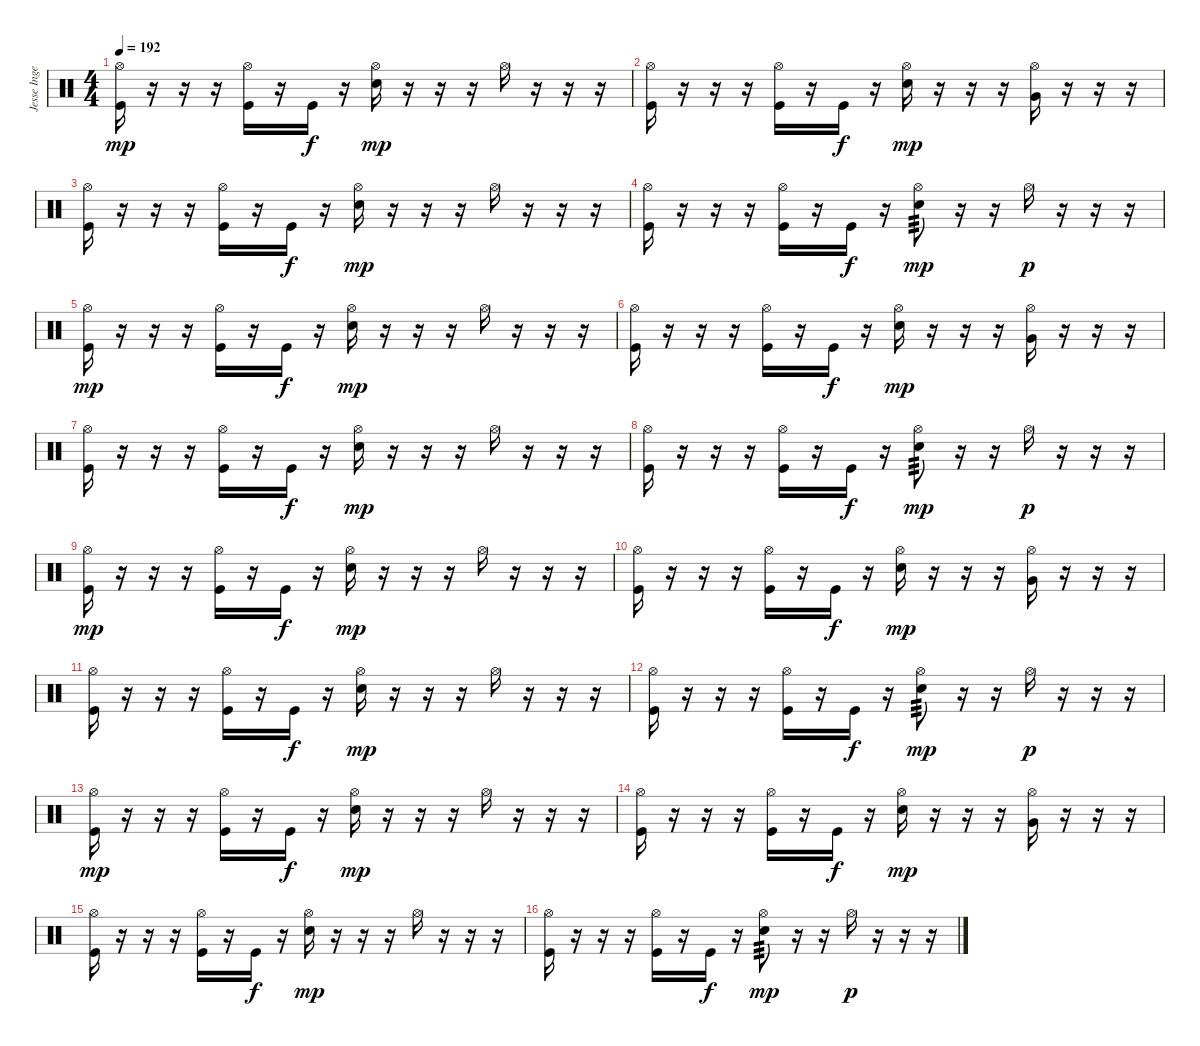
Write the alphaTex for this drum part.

\track ("Jesse Ingelevics" "Jesse Inge") {instrument percussion}
\staff {score}
\articulation defaults
\ts (4 4)
\tempo 192
\clef neutral
\ks c
("Hi-Hat (open)" "Kick (hit)").16{dy mp} r.16 r.16 r.16 ("Hi-Hat (open)" "Kick (hit)").16 r.16 "Kick (hit)".16{dy f} r.16 ("Hi-Hat (open)" "Electric Snare (hit)").16{dy mp} r.16 r.16 r.16 "Hi-Hat (open)".16 r.16 r.16 r.16 |
("Hi-Hat (open)" "Kick (hit)").16 r.16 r.16 r.16 ("Hi-Hat (open)" "Kick (hit)").16 r.16 "Kick (hit)".16{dy f} r.16 ("Hi-Hat (open)" "Electric Snare (hit)").16{dy mp} r.16 r.16 r.16 ("Hi-Hat (open)" "Very Low Tom (hit)").16 r.16 r.16 r.16 |
("Hi-Hat (open)" "Kick (hit)").16 r.16 r.16 r.16 ("Hi-Hat (open)" "Kick (hit)").16 r.16 "Kick (hit)".16{dy f} r.16 ("Hi-Hat (open)" "Electric Snare (hit)").16{dy mp} r.16 r.16 r.16 "Hi-Hat (open)".16 r.16 r.16 r.16 |
("Hi-Hat (open)" "Kick (hit)").16 r.16 r.16 r.16 ("Hi-Hat (open)" "Kick (hit)").16 r.16 "Kick (hit)".16{dy f} r.16 ("Hi-Hat (open)" "Electric Snare (hit)").8{tp 3 dy mp} r.16 r.16 "Hi-Hat (open)".16{dy p} r.16 r.16 r.16 |
("Hi-Hat (open)" "Kick (hit)").16{dy mp} r.16 r.16 r.16 ("Hi-Hat (open)" "Kick (hit)").16 r.16 "Kick (hit)".16{dy f} r.16 ("Hi-Hat (open)" "Electric Snare (hit)").16{dy mp} r.16 r.16 r.16 "Hi-Hat (open)".16 r.16 r.16 r.16 |
("Hi-Hat (open)" "Kick (hit)").16 r.16 r.16 r.16 ("Hi-Hat (open)" "Kick (hit)").16 r.16 "Kick (hit)".16{dy f} r.16 ("Hi-Hat (open)" "Electric Snare (hit)").16{dy mp} r.16 r.16 r.16 ("Hi-Hat (open)" "Very Low Tom (hit)").16 r.16 r.16 r.16 |
("Hi-Hat (open)" "Kick (hit)").16 r.16 r.16 r.16 ("Hi-Hat (open)" "Kick (hit)").16 r.16 "Kick (hit)".16{dy f} r.16 ("Hi-Hat (open)" "Electric Snare (hit)").16{dy mp} r.16 r.16 r.16 "Hi-Hat (open)".16 r.16 r.16 r.16 |
("Hi-Hat (open)" "Kick (hit)").16 r.16 r.16 r.16 ("Hi-Hat (open)" "Kick (hit)").16 r.16 "Kick (hit)".16{dy f} r.16 ("Hi-Hat (open)" "Electric Snare (hit)").8{tp 3 dy mp} r.16 r.16 "Hi-Hat (open)".16{dy p} r.16 r.16 r.16 |
("Hi-Hat (open)" "Kick (hit)").16{dy mp} r.16 r.16 r.16 ("Hi-Hat (open)" "Kick (hit)").16 r.16 "Kick (hit)".16{dy f} r.16 ("Hi-Hat (open)" "Electric Snare (hit)").16{dy mp} r.16 r.16 r.16 "Hi-Hat (open)".16 r.16 r.16 r.16 |
("Hi-Hat (open)" "Kick (hit)").16 r.16 r.16 r.16 ("Hi-Hat (open)" "Kick (hit)").16 r.16 "Kick (hit)".16{dy f} r.16 ("Hi-Hat (open)" "Electric Snare (hit)").16{dy mp} r.16 r.16 r.16 ("Hi-Hat (open)" "Very Low Tom (hit)").16 r.16 r.16 r.16 |
("Hi-Hat (open)" "Kick (hit)").16 r.16 r.16 r.16 ("Hi-Hat (open)" "Kick (hit)").16 r.16 "Kick (hit)".16{dy f} r.16 ("Hi-Hat (open)" "Electric Snare (hit)").16{dy mp} r.16 r.16 r.16 "Hi-Hat (open)".16 r.16 r.16 r.16 |
("Hi-Hat (open)" "Kick (hit)").16 r.16 r.16 r.16 ("Hi-Hat (open)" "Kick (hit)").16 r.16 "Kick (hit)".16{dy f} r.16 ("Hi-Hat (open)" "Electric Snare (hit)").8{tp 3 dy mp} r.16 r.16 "Hi-Hat (open)".16{dy p} r.16 r.16 r.16 |
("Hi-Hat (open)" "Kick (hit)").16{dy mp} r.16 r.16 r.16 ("Hi-Hat (open)" "Kick (hit)").16 r.16 "Kick (hit)".16{dy f} r.16 ("Hi-Hat (open)" "Electric Snare (hit)").16{dy mp} r.16 r.16 r.16 "Hi-Hat (open)".16 r.16 r.16 r.16 |
("Hi-Hat (open)" "Kick (hit)").16 r.16 r.16 r.16 ("Hi-Hat (open)" "Kick (hit)").16 r.16 "Kick (hit)".16{dy f} r.16 ("Hi-Hat (open)" "Electric Snare (hit)").16{dy mp} r.16 r.16 r.16 ("Hi-Hat (open)" "Very Low Tom (hit)").16 r.16 r.16 r.16 |
("Hi-Hat (open)" "Kick (hit)").16 r.16 r.16 r.16 ("Hi-Hat (open)" "Kick (hit)").16 r.16 "Kick (hit)".16{dy f} r.16 ("Hi-Hat (open)" "Electric Snare (hit)").16{dy mp} r.16 r.16 r.16 "Hi-Hat (open)".16 r.16 r.16 r.16 |
("Hi-Hat (open)" "Kick (hit)").16 r.16 r.16 r.16 ("Hi-Hat (open)" "Kick (hit)").16 r.16 "Kick (hit)".16{dy f} r.16 ("Hi-Hat (open)" "Electric Snare (hit)").8{tp 3 dy mp} r.16 r.16 "Hi-Hat (open)".16{dy p} r.16 r.16 r.16
